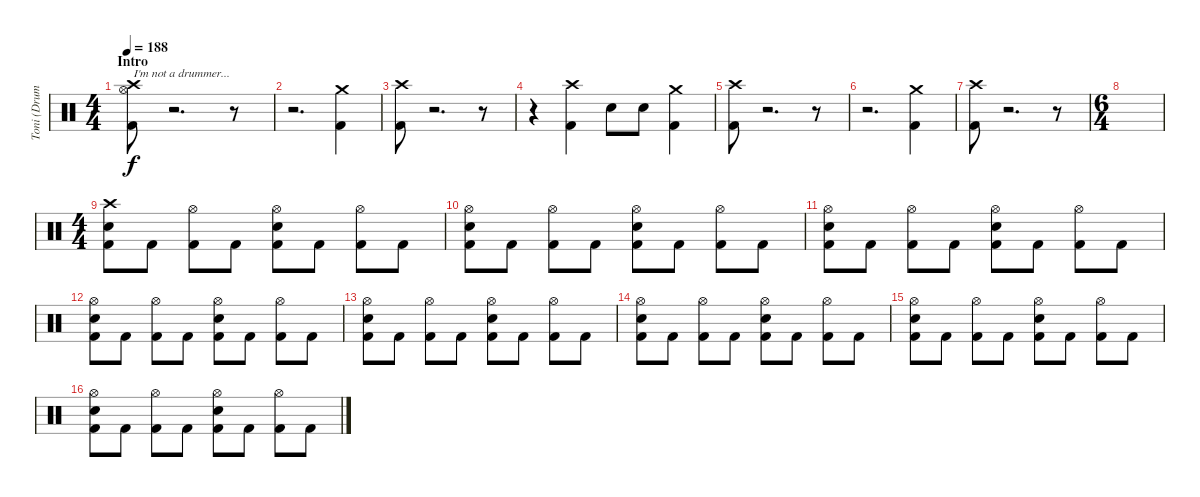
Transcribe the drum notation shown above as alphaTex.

\track ("Toni (Drums)" "Toni (Drum") {instrument percussion}
\staff {score}
\articulation defaults
\ts (4 4)
\section ("" "Intro")
\tempo 188
\clef neutral
\ks c
("Crash high (hit)" "Hi-Hat (open)" "Kick (hit) 2").8{txt "I'm not a drummer..." dy f} r.2{d} r.8 |
r.2{d} ("Crash medium (hit)" "Kick (hit) 2").4 |
("Crash high (hit)" "Kick (hit) 2").8 r.2{d} r.8 |
r.4 ("Crash high (hit)" "Kick (hit) 2").4 "Electric Snare (hit)".8 "Electric Snare (hit)".8 ("Crash medium (hit)" "Kick (hit) 2").4 |
("Crash high (hit)" "Kick (hit) 2").8 r.2{d} r.8 |
r.2{d} ("Crash medium (hit)" "Kick (hit) 2").4 |
("Crash high (hit)" "Kick (hit) 2").8 r.2{d} r.8 |
\ts (6 4)
|
\ts (4 4)
("Crash high (hit)" "Electric Snare (hit)" "Kick (hit) 2").8 "Kick (hit) 2".8 ("Hi-Hat (open)" "Kick (hit) 2").8 "Kick (hit) 2".8 ("Hi-Hat (open)" "Electric Snare (hit)" "Kick (hit) 2").8 "Kick (hit) 2".8 ("Hi-Hat (open)" "Kick (hit) 2").8 "Kick (hit) 2".8 |
("Hi-Hat (open)" "Electric Snare (hit)" "Kick (hit) 2").8 "Kick (hit) 2".8 ("Hi-Hat (open)" "Kick (hit) 2").8 "Kick (hit) 2".8 ("Hi-Hat (open)" "Electric Snare (hit)" "Kick (hit) 2").8 "Kick (hit) 2".8 ("Hi-Hat (open)" "Kick (hit) 2").8 "Kick (hit) 2".8 |
("Hi-Hat (open)" "Electric Snare (hit)" "Kick (hit) 2").8 "Kick (hit) 2".8 ("Hi-Hat (open)" "Kick (hit) 2").8 "Kick (hit) 2".8 ("Hi-Hat (open)" "Electric Snare (hit)" "Kick (hit) 2").8 "Kick (hit) 2".8 ("Hi-Hat (open)" "Kick (hit) 2").8 "Kick (hit) 2".8 |
("Hi-Hat (open)" "Electric Snare (hit)" "Kick (hit) 2").8 "Kick (hit) 2".8 ("Hi-Hat (open)" "Kick (hit) 2").8 "Kick (hit) 2".8 ("Hi-Hat (open)" "Electric Snare (hit)" "Kick (hit) 2").8 "Kick (hit) 2".8 ("Hi-Hat (open)" "Kick (hit) 2").8 "Kick (hit) 2".8 |
("Hi-Hat (open)" "Electric Snare (hit)" "Kick (hit) 2").8 "Kick (hit) 2".8 ("Hi-Hat (open)" "Kick (hit) 2").8 "Kick (hit) 2".8 ("Hi-Hat (open)" "Electric Snare (hit)" "Kick (hit) 2").8 "Kick (hit) 2".8 ("Hi-Hat (open)" "Kick (hit) 2").8 "Kick (hit) 2".8 |
("Hi-Hat (open)" "Electric Snare (hit)" "Kick (hit) 2").8 "Kick (hit) 2".8 ("Hi-Hat (open)" "Kick (hit) 2").8 "Kick (hit) 2".8 ("Hi-Hat (open)" "Electric Snare (hit)" "Kick (hit) 2").8 "Kick (hit) 2".8 ("Hi-Hat (open)" "Kick (hit) 2").8 "Kick (hit) 2".8 |
("Hi-Hat (open)" "Electric Snare (hit)" "Kick (hit) 2").8 "Kick (hit) 2".8 ("Hi-Hat (open)" "Kick (hit) 2").8 "Kick (hit) 2".8 ("Hi-Hat (open)" "Electric Snare (hit)" "Kick (hit) 2").8 "Kick (hit) 2".8 ("Hi-Hat (open)" "Kick (hit) 2").8 "Kick (hit) 2".8 |
("Hi-Hat (open)" "Electric Snare (hit)" "Kick (hit) 2").8 "Kick (hit) 2".8 ("Hi-Hat (open)" "Kick (hit) 2").8 "Kick (hit) 2".8 ("Hi-Hat (open)" "Electric Snare (hit)" "Kick (hit) 2").8 "Kick (hit) 2".8 ("Hi-Hat (open)" "Kick (hit) 2").8 "Kick (hit) 2".8
